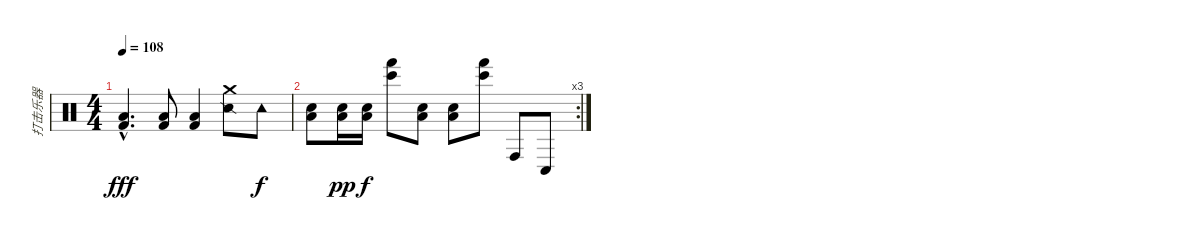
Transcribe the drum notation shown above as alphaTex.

\track ("打击乐器" "打击乐器") {instrument percussion}
\staff {score}
\articulation defaults
\ts (4 4)
\tempo 108
\clef neutral
\ks c
("Low Tom (hit)"{hac} "Kick (hit) 2"{hac}).4{d dy fff} ("Low Tom (hit)" "Kick (hit) 2").8 ("Low Tom (hit)" "Kick (hit) 2").4 ("Crash medium (hit)" "Snare (side stick) 2").8 "Tambourine (hit)".8{dy f} |
\rc 3
("Snare (hit) 2" "Low Tom (hit)").8 ("Snare (hit) 2" "Low Tom (hit)").16{dy pp} ("Snare (hit) 2" "Low Tom (hit)").16{dy f} ("Hand (hit)" "Bongo High (hit)").8 ("Snare (hit) 2" "Low Tom (hit)").8 ("Snare (hit) 2" "Low Tom (hit)").8 ("Hand (hit)" "Bongo High (hit)").8 "Conga high (hit)".8 "Conga low (hit)".8
